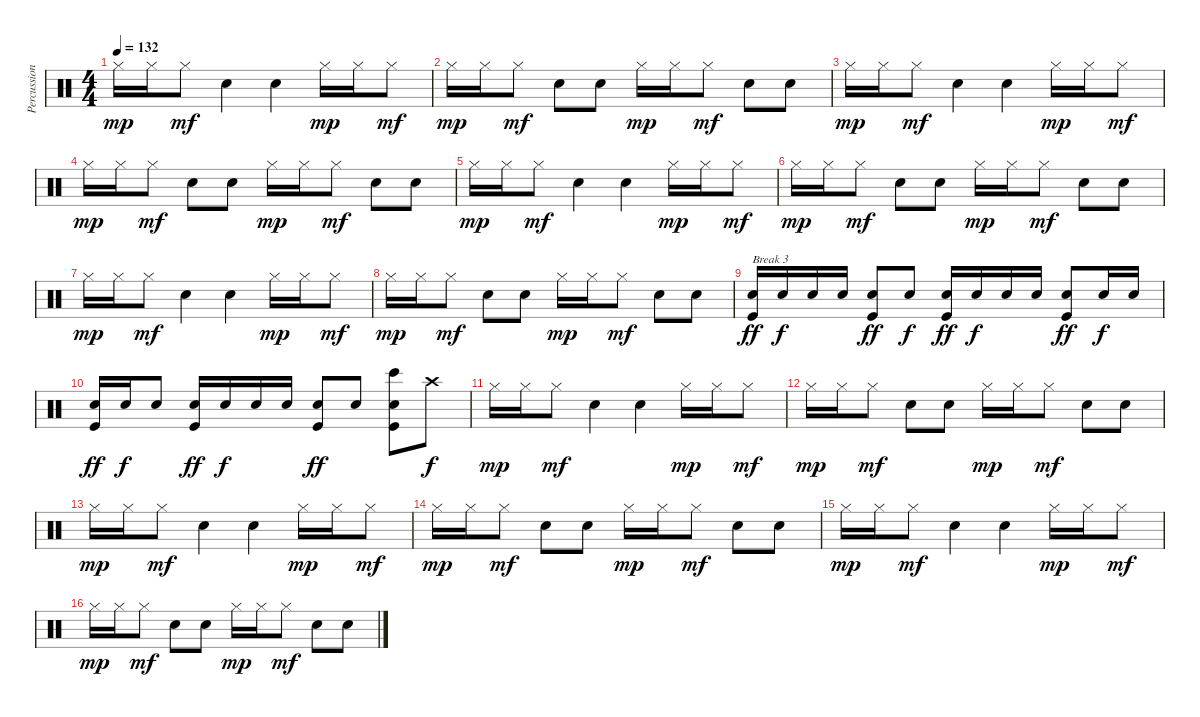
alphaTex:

\track ("Percussion" "Percussion") {instrument percussion}
\staff {score}
\articulation defaults
\ts (4 4)
\tempo 132
\clef neutral
\ks c "Hi-Hat (closed)".16{dy mp} "Hi-Hat (closed)".16 "Hi-Hat (closed)".8{dy mf} "Hand Clap (hit)".4 "Hand Clap (hit)".4 "Hi-Hat (closed)".16{dy mp} "Hi-Hat (closed)".16 "Hi-Hat (closed)".8{dy mf}
|
"Hi-Hat (closed)".16{dy mp} "Hi-Hat (closed)".16 "Hi-Hat (closed)".8{dy mf} "Hand Clap (hit)".8 "Hand Clap (hit)".8 "Hi-Hat (closed)".16{dy mp} "Hi-Hat (closed)".16 "Hi-Hat (closed)".8{dy mf} "Hand Clap (hit)".8 "Hand Clap (hit)".8 |
"Hi-Hat (closed)".16{dy mp} "Hi-Hat (closed)".16 "Hi-Hat (closed)".8{dy mf} "Hand Clap (hit)".4 "Hand Clap (hit)".4 "Hi-Hat (closed)".16{dy mp} "Hi-Hat (closed)".16 "Hi-Hat (closed)".8{dy mf} |
"Hi-Hat (closed)".16{dy mp} "Hi-Hat (closed)".16 "Hi-Hat (closed)".8{dy mf} "Hand Clap (hit)".8 "Hand Clap (hit)".8 "Hi-Hat (closed)".16{dy mp} "Hi-Hat (closed)".16 "Hi-Hat (closed)".8{dy mf} "Hand Clap (hit)".8 "Hand Clap (hit)".8 |
"Hi-Hat (closed)".16{dy mp} "Hi-Hat (closed)".16 "Hi-Hat (closed)".8{dy mf} "Hand Clap (hit)".4 "Hand Clap (hit)".4 "Hi-Hat (closed)".16{dy mp} "Hi-Hat (closed)".16 "Hi-Hat (closed)".8{dy mf} |
"Hi-Hat (closed)".16{dy mp} "Hi-Hat (closed)".16 "Hi-Hat (closed)".8{dy mf} "Hand Clap (hit)".8 "Hand Clap (hit)".8 "Hi-Hat (closed)".16{dy mp} "Hi-Hat (closed)".16 "Hi-Hat (closed)".8{dy mf} "Hand Clap (hit)".8 "Hand Clap (hit)".8 |
"Hi-Hat (closed)".16{dy mp} "Hi-Hat (closed)".16 "Hi-Hat (closed)".8{dy mf} "Hand Clap (hit)".4 "Hand Clap (hit)".4 "Hi-Hat (closed)".16{dy mp} "Hi-Hat (closed)".16 "Hi-Hat (closed)".8{dy mf} |
"Hi-Hat (closed)".16{dy mp} "Hi-Hat (closed)".16 "Hi-Hat (closed)".8{dy mf} "Hand Clap (hit)".8 "Hand Clap (hit)".8 "Hi-Hat (closed)".16{dy mp} "Hi-Hat (closed)".16 "Hi-Hat (closed)".8{dy mf} "Hand Clap (hit)".8 "Hand Clap (hit)".8 |
("Electric Snare (hit)" "Kick (hit)").16{txt "Break 3" dy ff} "Electric Snare (hit)".16{dy f} "Electric Snare (hit)".16 "Electric Snare (hit)".16 ("Electric Snare (hit)" "Kick (hit)").8{dy ff} "Electric Snare (hit)".8{dy f} ("Electric Snare (hit)" "Kick (hit)").16{dy ff} "Electric Snare (hit)".16{dy f} "Electric Snare (hit)".16 "Electric Snare (hit)".16 ("Electric Snare (hit)" "Kick (hit)").8{dy ff} "Electric Snare (hit)".16{dy f} "Electric Snare (hit)".16 |
("Electric Snare (hit)" "Kick (hit)").16{dy ff} "Electric Snare (hit)".16{dy f} "Electric Snare (hit)".8 ("Electric Snare (hit)" "Kick (hit)").16{dy ff} "Electric Snare (hit)".16{dy f} "Electric Snare (hit)".16 "Electric Snare (hit)".16 ("Electric Snare (hit)" "Kick (hit)").8{dy ff} "Electric Snare (hit)".8 ("Bongo High (hit)" "Electric Snare (hit)" "Kick (hit)").8 "Crash high (hit)".8{dy f} |
"Hi-Hat (closed)".16{dy mp} "Hi-Hat (closed)".16 "Hi-Hat (closed)".8{dy mf} "Hand Clap (hit)".4 "Hand Clap (hit)".4 "Hi-Hat (closed)".16{dy mp} "Hi-Hat (closed)".16 "Hi-Hat (closed)".8{dy mf} |
"Hi-Hat (closed)".16{dy mp} "Hi-Hat (closed)".16 "Hi-Hat (closed)".8{dy mf} "Hand Clap (hit)".8 "Hand Clap (hit)".8 "Hi-Hat (closed)".16{dy mp} "Hi-Hat (closed)".16 "Hi-Hat (closed)".8{dy mf} "Hand Clap (hit)".8 "Hand Clap (hit)".8 |
"Hi-Hat (closed)".16{dy mp} "Hi-Hat (closed)".16 "Hi-Hat (closed)".8{dy mf} "Hand Clap (hit)".4 "Hand Clap (hit)".4 "Hi-Hat (closed)".16{dy mp} "Hi-Hat (closed)".16 "Hi-Hat (closed)".8{dy mf} |
"Hi-Hat (closed)".16{dy mp} "Hi-Hat (closed)".16 "Hi-Hat (closed)".8{dy mf} "Hand Clap (hit)".8 "Hand Clap (hit)".8 "Hi-Hat (closed)".16{dy mp} "Hi-Hat (closed)".16 "Hi-Hat (closed)".8{dy mf} "Hand Clap (hit)".8 "Hand Clap (hit)".8 |
"Hi-Hat (closed)".16{dy mp} "Hi-Hat (closed)".16 "Hi-Hat (closed)".8{dy mf} "Hand Clap (hit)".4 "Hand Clap (hit)".4 "Hi-Hat (closed)".16{dy mp} "Hi-Hat (closed)".16 "Hi-Hat (closed)".8{dy mf} |
"Hi-Hat (closed)".16{dy mp} "Hi-Hat (closed)".16 "Hi-Hat (closed)".8{dy mf} "Hand Clap (hit)".8 "Hand Clap (hit)".8 "Hi-Hat (closed)".16{dy mp} "Hi-Hat (closed)".16 "Hi-Hat (closed)".8{dy mf} "Hand Clap (hit)".8 "Hand Clap (hit)".8
